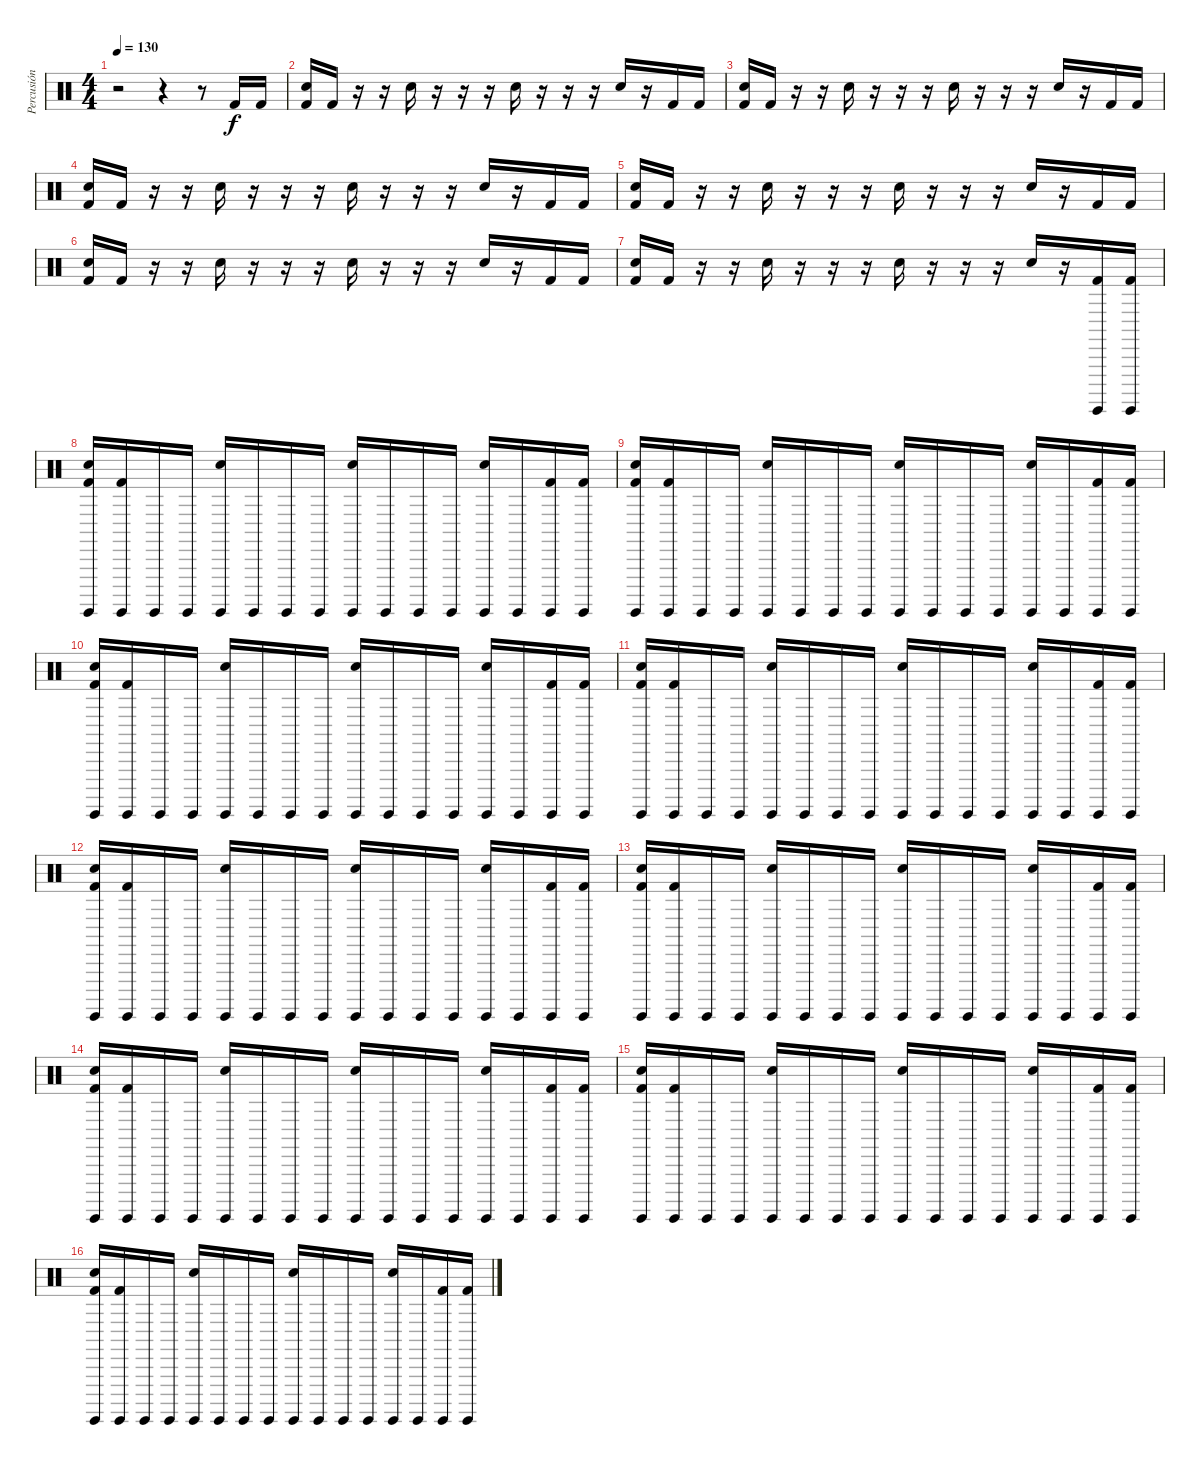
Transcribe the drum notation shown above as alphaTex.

\track ("Percusión" "Percusión") {instrument percussion}
\staff {score}
\articulation defaults
\ts (4 4)
\tempo 130
\clef neutral
\ks c
r.2{dy f} r.4 r.8 "Kick (hit) 2".16 "Kick (hit) 2".16 |
("Kick (hit) 2" "Electric Snare (hit)").16 "Kick (hit) 2".16 r.16 r.16 "Electric Snare (hit)".16 r.16 r.16 r.16 "Electric Snare (hit)".16 r.16 r.16 r.16 "Electric Snare (hit)".16 r.16 "Kick (hit) 2".16 "Kick (hit) 2".16 |
("Kick (hit) 2" "Electric Snare (hit)").16 "Kick (hit) 2".16 r.16 r.16 "Electric Snare (hit)".16 r.16 r.16 r.16 "Electric Snare (hit)".16 r.16 r.16 r.16 "Electric Snare (hit)".16 r.16 "Kick (hit) 2".16 "Kick (hit) 2".16 |
("Kick (hit) 2" "Electric Snare (hit)").16 "Kick (hit) 2".16 r.16 r.16 "Electric Snare (hit)".16 r.16 r.16 r.16 "Electric Snare (hit)".16 r.16 r.16 r.16 "Electric Snare (hit)".16 r.16 "Kick (hit) 2".16 "Kick (hit) 2".16 |
("Kick (hit) 2" "Electric Snare (hit)").16 "Kick (hit) 2".16 r.16 r.16 "Electric Snare (hit)".16 r.16 r.16 r.16 "Electric Snare (hit)".16 r.16 r.16 r.16 "Electric Snare (hit)".16 r.16 "Kick (hit) 2".16 "Kick (hit) 2".16 |
("Kick (hit) 2" "Electric Snare (hit)").16 "Kick (hit) 2".16 r.16 r.16 "Electric Snare (hit)".16 r.16 r.16 r.16 "Electric Snare (hit)".16 r.16 r.16 r.16 "Electric Snare (hit)".16 r.16 "Kick (hit) 2".16 "Kick (hit) 2".16 |
("Kick (hit) 2" "Electric Snare (hit)").16 "Kick (hit) 2".16 r.16 r.16 "Electric Snare (hit)".16 r.16 r.16 r.16 "Electric Snare (hit)".16 r.16 r.16 r.16 "Electric Snare (hit)".16 r.16 ("Kick (hit) 2" "Surdo (hit)").16 ("Kick (hit) 2" "Surdo (hit)").16 |
("Kick (hit) 2" "Electric Snare (hit)" "Surdo (hit)").16 ("Kick (hit) 2" "Surdo (hit)").16 "Surdo (hit)".16 "Surdo (hit)".16 ("Electric Snare (hit)" "Surdo (hit)").16 "Surdo (hit)".16 "Surdo (hit)".16 "Surdo (hit)".16 ("Electric Snare (hit)" "Surdo (hit)").16 "Surdo (hit)".16 "Surdo (hit)".16 "Surdo (hit)".16 ("Electric Snare (hit)" "Surdo (hit)").16 "Surdo (hit)".16 ("Kick (hit) 2" "Surdo (hit)").16 ("Kick (hit) 2" "Surdo (hit)").16 |
("Kick (hit) 2" "Electric Snare (hit)" "Surdo (hit)").16 ("Kick (hit) 2" "Surdo (hit)").16 "Surdo (hit)".16 "Surdo (hit)".16 ("Electric Snare (hit)" "Surdo (hit)").16 "Surdo (hit)".16 "Surdo (hit)".16 "Surdo (hit)".16 ("Electric Snare (hit)" "Surdo (hit)").16 "Surdo (hit)".16 "Surdo (hit)".16 "Surdo (hit)".16 ("Electric Snare (hit)" "Surdo (hit)").16 "Surdo (hit)".16 ("Kick (hit) 2" "Surdo (hit)").16 ("Kick (hit) 2" "Surdo (hit)").16 |
("Kick (hit) 2" "Electric Snare (hit)" "Surdo (hit)").16 ("Kick (hit) 2" "Surdo (hit)").16 "Surdo (hit)".16 "Surdo (hit)".16 ("Electric Snare (hit)" "Surdo (hit)").16 "Surdo (hit)".16 "Surdo (hit)".16 "Surdo (hit)".16 ("Electric Snare (hit)" "Surdo (hit)").16 "Surdo (hit)".16 "Surdo (hit)".16 "Surdo (hit)".16 ("Electric Snare (hit)" "Surdo (hit)").16 "Surdo (hit)".16 ("Kick (hit) 2" "Surdo (hit)").16 ("Kick (hit) 2" "Surdo (hit)").16 |
("Kick (hit) 2" "Electric Snare (hit)" "Surdo (hit)").16 ("Kick (hit) 2" "Surdo (hit)").16 "Surdo (hit)".16 "Surdo (hit)".16 ("Electric Snare (hit)" "Surdo (hit)").16 "Surdo (hit)".16 "Surdo (hit)".16 "Surdo (hit)".16 ("Electric Snare (hit)" "Surdo (hit)").16 "Surdo (hit)".16 "Surdo (hit)".16 "Surdo (hit)".16 ("Electric Snare (hit)" "Surdo (hit)").16 "Surdo (hit)".16 ("Kick (hit) 2" "Surdo (hit)").16 ("Kick (hit) 2" "Surdo (hit)").16 |
("Kick (hit) 2" "Electric Snare (hit)" "Surdo (hit)").16 ("Kick (hit) 2" "Surdo (hit)").16 "Surdo (hit)".16 "Surdo (hit)".16 ("Electric Snare (hit)" "Surdo (hit)").16 "Surdo (hit)".16 "Surdo (hit)".16 "Surdo (hit)".16 ("Electric Snare (hit)" "Surdo (hit)").16 "Surdo (hit)".16 "Surdo (hit)".16 "Surdo (hit)".16 ("Electric Snare (hit)" "Surdo (hit)").16 "Surdo (hit)".16 ("Kick (hit) 2" "Surdo (hit)").16 ("Kick (hit) 2" "Surdo (hit)").16 |
("Kick (hit) 2" "Electric Snare (hit)" "Surdo (hit)").16 ("Kick (hit) 2" "Surdo (hit)").16 "Surdo (hit)".16 "Surdo (hit)".16 ("Electric Snare (hit)" "Surdo (hit)").16 "Surdo (hit)".16 "Surdo (hit)".16 "Surdo (hit)".16 ("Electric Snare (hit)" "Surdo (hit)").16 "Surdo (hit)".16 "Surdo (hit)".16 "Surdo (hit)".16 ("Electric Snare (hit)" "Surdo (hit)").16 "Surdo (hit)".16 ("Kick (hit) 2" "Surdo (hit)").16 ("Kick (hit) 2" "Surdo (hit)").16 |
("Kick (hit) 2" "Electric Snare (hit)" "Surdo (hit)").16 ("Kick (hit) 2" "Surdo (hit)").16 "Surdo (hit)".16 "Surdo (hit)".16 ("Electric Snare (hit)" "Surdo (hit)").16 "Surdo (hit)".16 "Surdo (hit)".16 "Surdo (hit)".16 ("Electric Snare (hit)" "Surdo (hit)").16 "Surdo (hit)".16 "Surdo (hit)".16 "Surdo (hit)".16 ("Electric Snare (hit)" "Surdo (hit)").16 "Surdo (hit)".16 ("Kick (hit) 2" "Surdo (hit)").16 ("Kick (hit) 2" "Surdo (hit)").16 |
("Kick (hit) 2" "Electric Snare (hit)" "Surdo (hit)").16 ("Kick (hit) 2" "Surdo (hit)").16 "Surdo (hit)".16 "Surdo (hit)".16 ("Electric Snare (hit)" "Surdo (hit)").16 "Surdo (hit)".16 "Surdo (hit)".16 "Surdo (hit)".16 ("Electric Snare (hit)" "Surdo (hit)").16 "Surdo (hit)".16 "Surdo (hit)".16 "Surdo (hit)".16 ("Electric Snare (hit)" "Surdo (hit)").16 "Surdo (hit)".16 ("Kick (hit) 2" "Surdo (hit)").16 ("Kick (hit) 2" "Surdo (hit)").16 |
("Kick (hit) 2" "Electric Snare (hit)" "Surdo (hit)").16 ("Kick (hit) 2" "Surdo (hit)").16 "Surdo (hit)".16 "Surdo (hit)".16 ("Electric Snare (hit)" "Surdo (hit)").16 "Surdo (hit)".16 "Surdo (hit)".16 "Surdo (hit)".16 ("Electric Snare (hit)" "Surdo (hit)").16 "Surdo (hit)".16 "Surdo (hit)".16 "Surdo (hit)".16 ("Electric Snare (hit)" "Surdo (hit)").16 "Surdo (hit)".16 ("Kick (hit) 2" "Surdo (hit)").16 ("Kick (hit) 2" "Surdo (hit)").16
